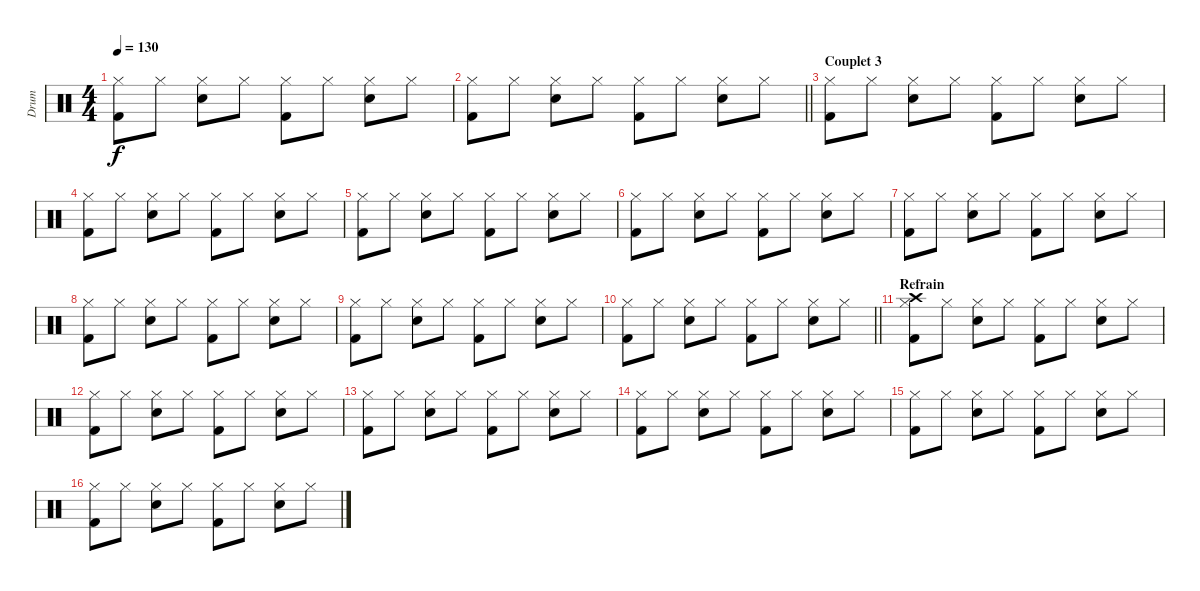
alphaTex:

\track ("Drum" "Drum") {instrument percussion}
\staff {score}
\articulation defaults
\ts (4 4)
\tempo 130
\clef neutral
\ks c
("Hi-Hat (closed)" "Kick (hit) 2").8{dy f} "Hi-Hat (closed)".8 ("Snare (hit) 2" "Hi-Hat (closed)").8 "Hi-Hat (closed)".8 ("Hi-Hat (closed)" "Kick (hit) 2").8 "Hi-Hat (closed)".8 ("Snare (hit) 2" "Hi-Hat (closed)").8 "Hi-Hat (closed)".8 |
\barLineRight lightlight
("Hi-Hat (closed)" "Kick (hit) 2").8 "Hi-Hat (closed)".8 ("Snare (hit) 2" "Hi-Hat (closed)").8 "Hi-Hat (closed)".8 ("Hi-Hat (closed)" "Kick (hit) 2").8 "Hi-Hat (closed)".8 ("Snare (hit) 2" "Hi-Hat (closed)").8 "Hi-Hat (closed)".8 |
\section ("" "Couplet 3")
("Hi-Hat (closed)" "Kick (hit) 2").8 "Hi-Hat (closed)".8 ("Snare (hit) 2" "Hi-Hat (closed)").8 "Hi-Hat (closed)".8 ("Hi-Hat (closed)" "Kick (hit) 2").8 "Hi-Hat (closed)".8 ("Snare (hit) 2" "Hi-Hat (closed)").8 "Hi-Hat (closed)".8 |
("Hi-Hat (closed)" "Kick (hit) 2").8 "Hi-Hat (closed)".8 ("Snare (hit) 2" "Hi-Hat (closed)").8 "Hi-Hat (closed)".8 ("Hi-Hat (closed)" "Kick (hit) 2").8 "Hi-Hat (closed)".8 ("Snare (hit) 2" "Hi-Hat (closed)").8 "Hi-Hat (closed)".8 |
("Hi-Hat (closed)" "Kick (hit) 2").8 "Hi-Hat (closed)".8 ("Snare (hit) 2" "Hi-Hat (closed)").8 "Hi-Hat (closed)".8 ("Hi-Hat (closed)" "Kick (hit) 2").8 "Hi-Hat (closed)".8 ("Snare (hit) 2" "Hi-Hat (closed)").8 "Hi-Hat (closed)".8 |
("Hi-Hat (closed)" "Kick (hit) 2").8 "Hi-Hat (closed)".8 ("Snare (hit) 2" "Hi-Hat (closed)").8 "Hi-Hat (closed)".8 ("Hi-Hat (closed)" "Kick (hit) 2").8 "Hi-Hat (closed)".8 ("Snare (hit) 2" "Hi-Hat (closed)").8 "Hi-Hat (closed)".8 |
("Hi-Hat (closed)" "Kick (hit) 2").8 "Hi-Hat (closed)".8 ("Snare (hit) 2" "Hi-Hat (closed)").8 "Hi-Hat (closed)".8 ("Hi-Hat (closed)" "Kick (hit) 2").8 "Hi-Hat (closed)".8 ("Snare (hit) 2" "Hi-Hat (closed)").8 "Hi-Hat (closed)".8 |
("Hi-Hat (closed)" "Kick (hit) 2").8 "Hi-Hat (closed)".8 ("Snare (hit) 2" "Hi-Hat (closed)").8 "Hi-Hat (closed)".8 ("Hi-Hat (closed)" "Kick (hit) 2").8 "Hi-Hat (closed)".8 ("Snare (hit) 2" "Hi-Hat (closed)").8 "Hi-Hat (closed)".8 |
("Hi-Hat (closed)" "Kick (hit) 2").8 "Hi-Hat (closed)".8 ("Snare (hit) 2" "Hi-Hat (closed)").8 "Hi-Hat (closed)".8 ("Hi-Hat (closed)" "Kick (hit) 2").8 "Hi-Hat (closed)".8 ("Snare (hit) 2" "Hi-Hat (closed)").8 "Hi-Hat (closed)".8 |
\barLineRight lightlight
("Hi-Hat (closed)" "Kick (hit) 2").8 "Hi-Hat (closed)".8 ("Snare (hit) 2" "Hi-Hat (closed)").8 "Hi-Hat (closed)".8 ("Hi-Hat (closed)" "Kick (hit) 2").8 "Hi-Hat (closed)".8 ("Snare (hit) 2" "Hi-Hat (closed)").8 "Hi-Hat (closed)".8 |
\section ("" "Refrain")
("Crash high (hit)" "Hi-Hat (closed)" "Kick (hit) 2").8 "Hi-Hat (closed)".8 ("Snare (hit) 2" "Hi-Hat (closed)").8 "Hi-Hat (closed)".8 ("Hi-Hat (closed)" "Kick (hit) 2").8 "Hi-Hat (closed)".8 ("Snare (hit) 2" "Hi-Hat (closed)").8 "Hi-Hat (closed)".8 |
("Hi-Hat (closed)" "Kick (hit) 2").8 "Hi-Hat (closed)".8 ("Snare (hit) 2" "Hi-Hat (closed)").8 "Hi-Hat (closed)".8 ("Hi-Hat (closed)" "Kick (hit) 2").8 "Hi-Hat (closed)".8 ("Snare (hit) 2" "Hi-Hat (closed)").8 "Hi-Hat (closed)".8 |
("Hi-Hat (closed)" "Kick (hit) 2").8 "Hi-Hat (closed)".8 ("Snare (hit) 2" "Hi-Hat (closed)").8 "Hi-Hat (closed)".8 ("Hi-Hat (closed)" "Kick (hit) 2").8 "Hi-Hat (closed)".8 ("Snare (hit) 2" "Hi-Hat (closed)").8 "Hi-Hat (closed)".8 |
("Hi-Hat (closed)" "Kick (hit) 2").8 "Hi-Hat (closed)".8 ("Snare (hit) 2" "Hi-Hat (closed)").8 "Hi-Hat (closed)".8 ("Hi-Hat (closed)" "Kick (hit) 2").8 "Hi-Hat (closed)".8 ("Snare (hit) 2" "Hi-Hat (closed)").8 "Hi-Hat (closed)".8 |
("Hi-Hat (closed)" "Kick (hit) 2").8 "Hi-Hat (closed)".8 ("Snare (hit) 2" "Hi-Hat (closed)").8 "Hi-Hat (closed)".8 ("Hi-Hat (closed)" "Kick (hit) 2").8 "Hi-Hat (closed)".8 ("Snare (hit) 2" "Hi-Hat (closed)").8 "Hi-Hat (closed)".8 |
("Hi-Hat (closed)" "Kick (hit) 2").8 "Hi-Hat (closed)".8 ("Snare (hit) 2" "Hi-Hat (closed)").8 "Hi-Hat (closed)".8 ("Hi-Hat (closed)" "Kick (hit) 2").8 "Hi-Hat (closed)".8 ("Snare (hit) 2" "Hi-Hat (closed)").8 "Hi-Hat (closed)".8
